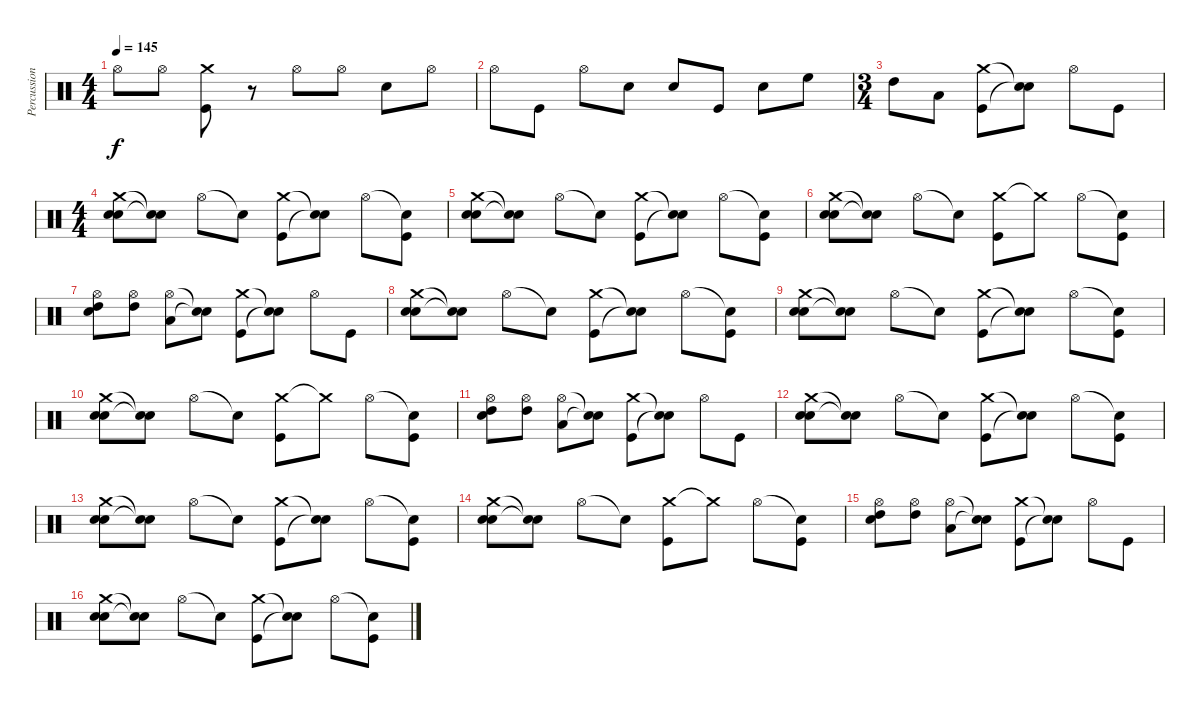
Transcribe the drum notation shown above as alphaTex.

\track ("Percussions" "Percussion") {instrument percussion}
\staff {score}
\articulation defaults
\ts (4 4)
\tempo 145
\clef neutral
\ks c "Hi-Hat (open)".8{dy f} "Hi-Hat (open)".8
("Crash medium (hit)" "Kick (hit)").8 r.8 "Hi-Hat (open)".8 "Hi-Hat (open)".8 "Electric Snare (hit)".8 "Hi-Hat (open)".8 |
"Hi-Hat (open)".8 "Kick (hit)".8 "Hi-Hat (open)".8 "Electric Snare (hit)".8 "Electric Snare (hit)".8 "Kick (hit)".8 "Electric Snare (hit)".8 "High Floor Tom (hit)".8 |
\ts (3 4)
"High Tom (hit)".8 "Low Tom (hit)".8 ("Crash medium (hit)" "Kick (hit)").8 ("Snare (hit)"{t} "Snare (hit)"{t}).8 "Hi-Hat (open)".8 "Kick (hit)".8 |
\ts (4 4)
("Crash medium (hit)" "Electric Snare (hit)" "Electric Snare (hit)").8 ("Snare (hit)"{t} "Snare (hit)"{t}).8 "Hi-Hat (open)".8 "Snare (hit)"{t}.8 ("Crash medium (hit)" "Kick (hit)").8 ("Snare (hit)"{t} "Snare (hit)"{t}).8 "Hi-Hat (open)".8 ("Snare (hit)"{t} "Kick (hit)").8 |
("Crash medium (hit)" "Electric Snare (hit)" "Electric Snare (hit)").8 ("Snare (hit)"{t} "Snare (hit)"{t}).8 "Hi-Hat (open)".8 "Snare (hit)"{t}.8 ("Crash medium (hit)" "Kick (hit)").8 ("Snare (hit)"{t} "Snare (hit)"{t}).8 "Hi-Hat (open)".8 ("Snare (hit)"{t} "Kick (hit)").8 |
("Crash medium (hit)" "Electric Snare (hit)" "Electric Snare (hit)").8 ("Snare (hit)"{t} "Snare (hit)"{t}).8 "Hi-Hat (open)".8 "Snare (hit)"{t}.8 ("Crash medium (hit)" "Kick (hit)").8 "Crash medium (hit)"{t}.8 "Hi-Hat (open)".8 ("Snare (hit)"{t} "Kick (hit)").8 |
("Hi-Hat (open)" "High Tom (hit)" "Electric Snare (hit)").8{volume 12} ("Hi-Hat (open)" "High Tom (hit)").8 ("Hi-Hat (open)" "Low Floor Tom (hit)").8 ("Snare (hit)"{t} "Snare (hit)"{t}).8 ("Crash medium (hit)" "Kick (hit)").8{volume 16} ("Snare (hit)"{t} "Snare (hit)"{t}).8 "Hi-Hat (open)".8 "Kick (hit)".8 |
("Crash medium (hit)" "Electric Snare (hit)" "Electric Snare (hit)").8 ("Snare (hit)"{t} "Snare (hit)"{t}).8 "Hi-Hat (open)".8 "Snare (hit)"{t}.8 ("Crash medium (hit)" "Kick (hit)").8 ("Snare (hit)"{t} "Snare (hit)"{t}).8 "Hi-Hat (open)".8 ("Snare (hit)"{t} "Kick (hit)").8 |
("Crash medium (hit)" "Electric Snare (hit)" "Electric Snare (hit)").8 ("Snare (hit)"{t} "Snare (hit)"{t}).8 "Hi-Hat (open)".8 "Snare (hit)"{t}.8 ("Crash medium (hit)" "Kick (hit)").8 ("Snare (hit)"{t} "Snare (hit)"{t}).8 "Hi-Hat (open)".8 ("Snare (hit)"{t} "Kick (hit)").8 |
("Crash medium (hit)" "Electric Snare (hit)" "Electric Snare (hit)").8 ("Snare (hit)"{t} "Snare (hit)"{t}).8 "Hi-Hat (open)".8 "Snare (hit)"{t}.8 ("Crash medium (hit)" "Kick (hit)").8 "Crash medium (hit)"{t}.8 "Hi-Hat (open)".8 ("Snare (hit)"{t} "Kick (hit)").8 |
("Hi-Hat (open)" "High Tom (hit)" "Electric Snare (hit)").8{volume 12} ("Hi-Hat (open)" "High Tom (hit)").8 ("Hi-Hat (open)" "Low Floor Tom (hit)").8 ("Snare (hit)"{t} "Snare (hit)"{t}).8 ("Crash medium (hit)" "Kick (hit)").8{volume 16} ("Snare (hit)"{t} "Snare (hit)"{t}).8 "Hi-Hat (open)".8 "Kick (hit)".8 |
("Crash medium (hit)" "Electric Snare (hit)" "Electric Snare (hit)").8 ("Snare (hit)"{t} "Snare (hit)"{t}).8 "Hi-Hat (open)".8 "Snare (hit)"{t}.8 ("Crash medium (hit)" "Kick (hit)").8 ("Snare (hit)"{t} "Snare (hit)"{t}).8 "Hi-Hat (open)".8 ("Snare (hit)"{t} "Kick (hit)").8 |
("Crash medium (hit)" "Electric Snare (hit)" "Electric Snare (hit)").8 ("Snare (hit)"{t} "Snare (hit)"{t}).8 "Hi-Hat (open)".8 "Snare (hit)"{t}.8 ("Crash medium (hit)" "Kick (hit)").8 ("Snare (hit)"{t} "Snare (hit)"{t}).8 "Hi-Hat (open)".8 ("Snare (hit)"{t} "Kick (hit)").8 |
("Crash medium (hit)" "Electric Snare (hit)" "Electric Snare (hit)").8 ("Snare (hit)"{t} "Snare (hit)"{t}).8 "Hi-Hat (open)".8 "Snare (hit)"{t}.8 ("Crash medium (hit)" "Kick (hit)").8 "Crash medium (hit)"{t}.8 "Hi-Hat (open)".8 ("Snare (hit)"{t} "Kick (hit)").8 |
("Hi-Hat (open)" "High Tom (hit)" "Electric Snare (hit)").8{volume 12} ("Hi-Hat (open)" "High Tom (hit)").8 ("Hi-Hat (open)" "Low Floor Tom (hit)").8 ("Snare (hit)"{t} "Snare (hit)"{t}).8 ("Crash medium (hit)" "Kick (hit)").8{volume 16} ("Snare (hit)"{t} "Snare (hit)"{t}).8 "Hi-Hat (open)".8 "Kick (hit)".8 |
("Crash medium (hit)" "Electric Snare (hit)" "Electric Snare (hit)").8 ("Snare (hit)"{t} "Snare (hit)"{t}).8 "Hi-Hat (open)".8 "Snare (hit)"{t}.8 ("Crash medium (hit)" "Kick (hit)").8 ("Snare (hit)"{t} "Snare (hit)"{t}).8 "Hi-Hat (open)".8 ("Snare (hit)"{t} "Kick (hit)").8
